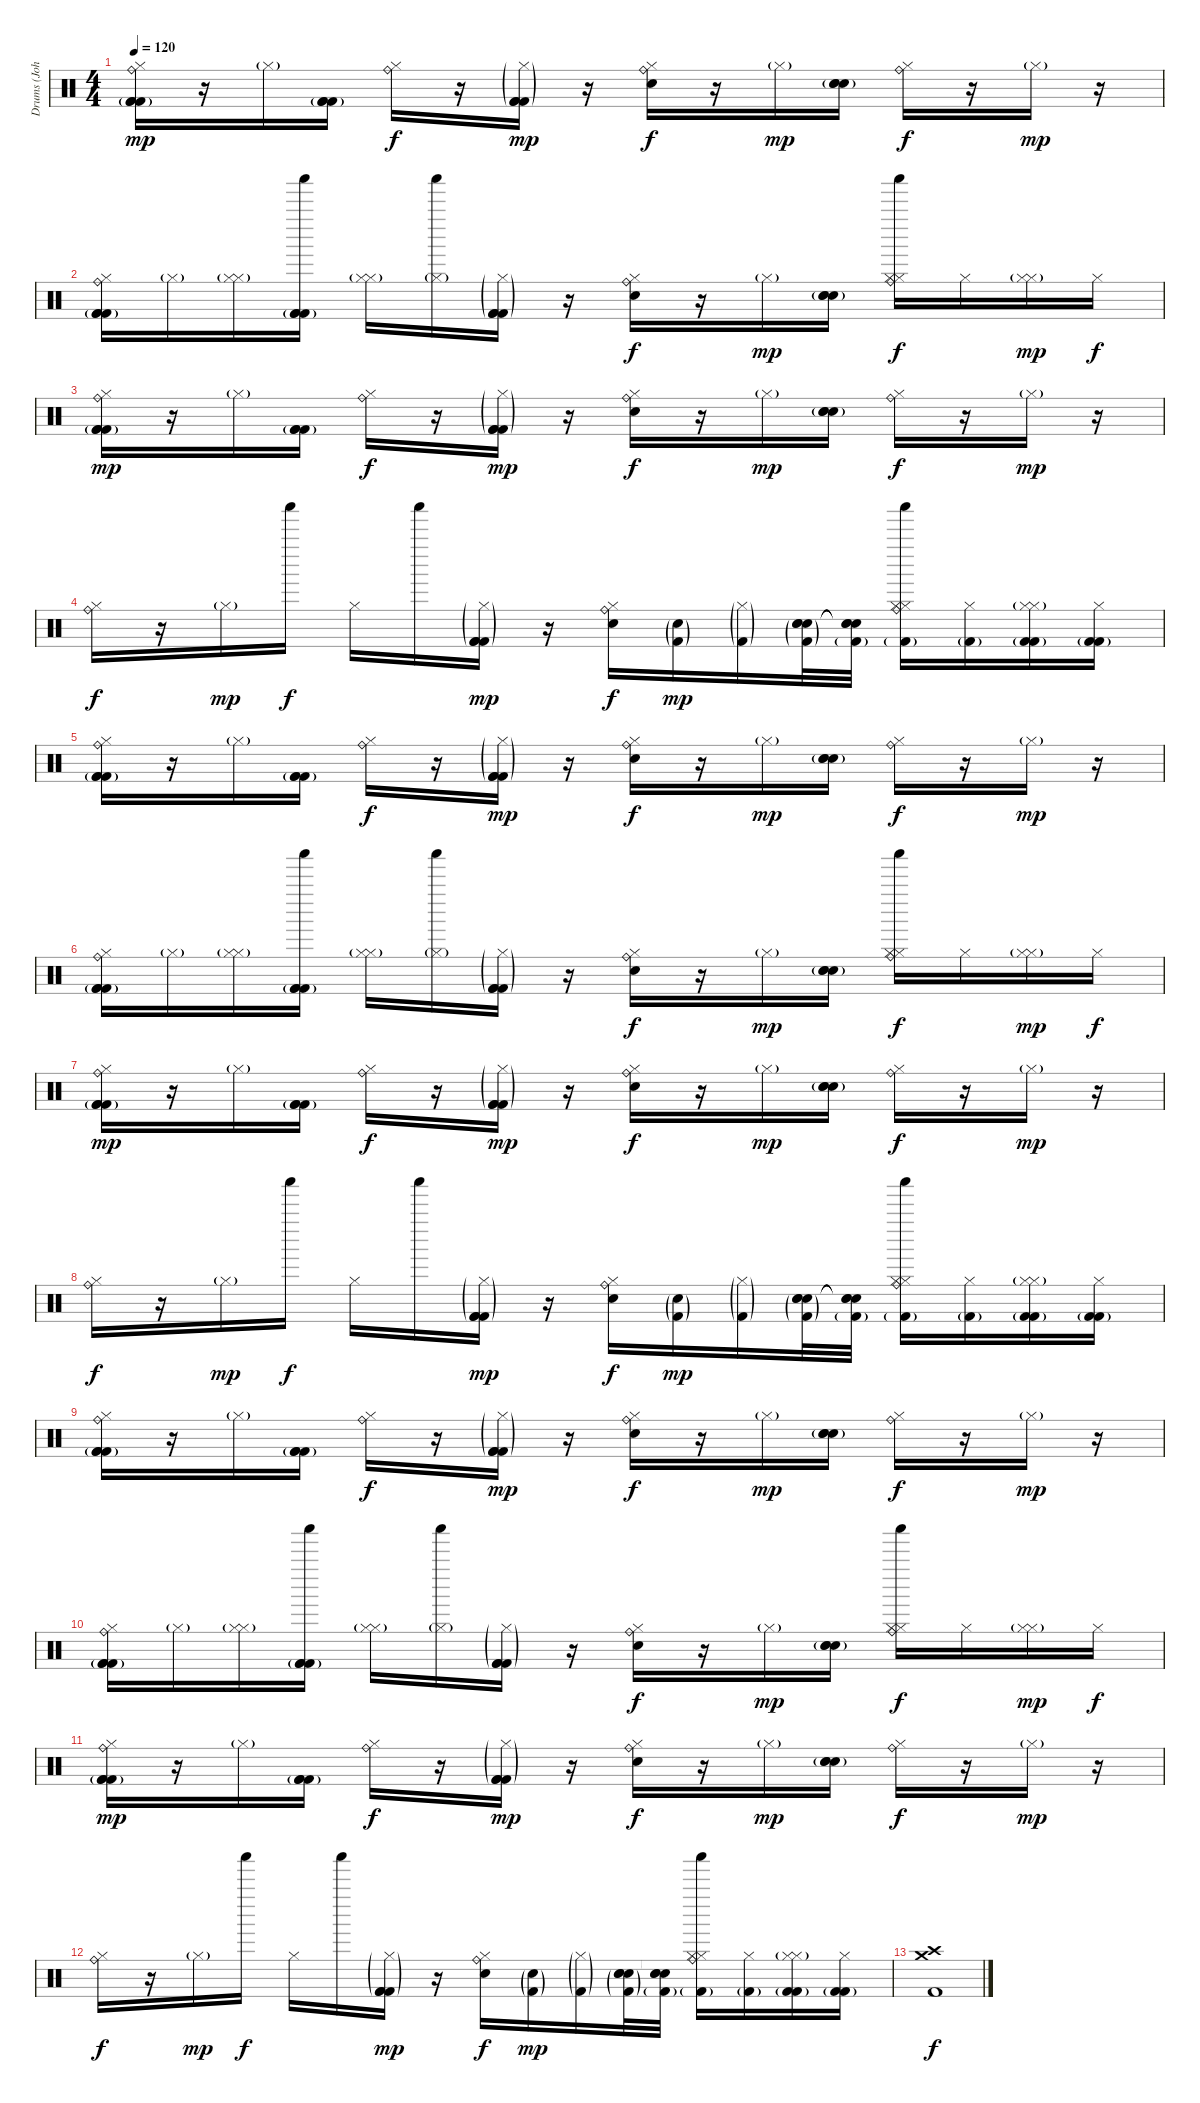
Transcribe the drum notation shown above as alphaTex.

\track ("Drums (Johno)" "Drums (Joh") {instrument percussion}
\staff {score}
\articulation defaults
\ts (4 4)
\tempo 120
\clef neutral
\ks c
("Ride (bell)" "Hi-Hat (closed)" "Kick (hit) 2"{g} "Kick (hit) 2"{g} "Kick (hit) 2").16{dy mp} r.16 "Hi-Hat (closed)"{g}.16 ("Kick (hit) 2"{g} "Kick (hit) 2"{g} "Kick (hit) 2"{g}).16 ("Ride (bell)" "Hi-Hat (closed)").16{dy f} r.16 ("Hi-Hat (closed)"{g} "Kick (hit) 2"{g} "Kick (hit) 2"{g} "Kick (hit) 2").16{dy mp} r.16 ("Ride (bell)" "Hi-Hat (closed)" "Electric Snare (hit)").16{dy f} r.16 "Hi-Hat (closed)"{g}.16{dy mp} ("Electric Snare (hit)"{g} "Electric Snare (hit)"{g} "Electric Snare (hit)"{g}).16 ("Ride (bell)" "Hi-Hat (closed)").16{dy f} r.16 "Hi-Hat (closed)"{g}.16{dy mp} r.16 |
("Ride (bell)" "Hi-Hat (closed)" "Kick (hit) 2"{g} "Kick (hit) 2"{g} "Kick (hit) 2").16 "Hi-Hat (closed)"{g}.16 ("Hi-Hat (closed)"{g} "Hi-Hat (closed)"{g}).16 ("Shaker (hit)" "Kick (hit) 2"{g} "Kick (hit) 2"{g} "Kick (hit) 2").16 ("Hi-Hat (closed)" "Hi-Hat (closed)"{g}).16 ("Shaker (hit)" "Hi-Hat (closed)"{g}).16 ("Hi-Hat (closed)"{g} "Kick (hit) 2"{g} "Kick (hit) 2"{g} "Kick (hit) 2").16 r.16 ("Ride (bell)" "Hi-Hat (closed)" "Electric Snare (hit)").16{dy f} r.16 "Hi-Hat (closed)"{g}.16{dy mp} ("Electric Snare (hit)"{g} "Electric Snare (hit)"{g} "Electric Snare (hit)"{g}).16 ("Shaker (hit)" "Hi-Hat (closed)" "Ride (bell)" "Hi-Hat (closed)").16{dy f} "Hi-Hat (closed)".16 ("Hi-Hat (closed)"{g} "Hi-Hat (closed)").16{dy mp} "Hi-Hat (closed)".16{dy f} |
("Ride (bell)" "Hi-Hat (closed)" "Kick (hit) 2"{g} "Kick (hit) 2"{g} "Kick (hit) 2").16{dy mp} r.16 "Hi-Hat (closed)"{g}.16 ("Kick (hit) 2"{g} "Kick (hit) 2"{g} "Kick (hit) 2"{g}).16 ("Ride (bell)" "Hi-Hat (closed)").16{dy f} r.16 ("Hi-Hat (closed)"{g} "Kick (hit) 2"{g} "Kick (hit) 2"{g} "Kick (hit) 2").16{dy mp} r.16 ("Ride (bell)" "Hi-Hat (closed)" "Electric Snare (hit)").16{dy f} r.16 "Hi-Hat (closed)"{g}.16{dy mp} ("Electric Snare (hit)"{g} "Electric Snare (hit)"{g} "Electric Snare (hit)"{g}).16 ("Ride (bell)" "Hi-Hat (closed)").16{dy f} r.16 "Hi-Hat (closed)"{g}.16{dy mp} r.16 |
("Ride (bell)" "Hi-Hat (closed)").16{dy f} r.16 "Hi-Hat (closed)"{g}.16{dy mp} "Shaker (hit)".16{dy f} "Hi-Hat (closed)".16 "Shaker (hit)".16 ("Hi-Hat (closed)"{g} "Kick (hit) 2"{g} "Kick (hit) 2"{g} "Kick (hit) 2").16{dy mp} r.16 ("Ride (bell)" "Hi-Hat (closed)" "Electric Snare (hit)").16{dy f} ("Kick (hit) 2"{g} "Electric Snare (hit)"{g}).16{dy mp} ("Hi-Hat (closed)"{g} "Kick (hit) 2"{g}).16 ("Kick (hit) 2"{g} "Electric Snare (hit)"{g} "Electric Snare (hit)"{g} "Electric Snare (hit)"{g}).32 ("Kick (hit) 2"{g} "Snare (hit)"{t} "Snare (hit)"{t} "Snare (hit)"{t}).32 ("Shaker (hit)" "Hi-Hat (closed)" "Ride (bell)" "Kick (hit) 2"{g} "Hi-Hat (closed)").16 ("Kick (hit) 2"{g} "Hi-Hat (closed)").16 ("Hi-Hat (closed)"{g} "Kick (hit) 2"{g} "Hi-Hat (closed)" "Kick (hit) 2").16 ("Kick (hit) 2"{g} "Hi-Hat (closed)" "Kick (hit) 2").16 |
("Ride (bell)" "Hi-Hat (closed)" "Kick (hit) 2"{g} "Kick (hit) 2"{g} "Kick (hit) 2").16 r.16 "Hi-Hat (closed)"{g}.16 ("Kick (hit) 2"{g} "Kick (hit) 2"{g} "Kick (hit) 2"{g}).16 ("Ride (bell)" "Hi-Hat (closed)").16{dy f} r.16 ("Hi-Hat (closed)"{g} "Kick (hit) 2"{g} "Kick (hit) 2"{g} "Kick (hit) 2").16{dy mp} r.16 ("Ride (bell)" "Hi-Hat (closed)" "Electric Snare (hit)").16{dy f} r.16 "Hi-Hat (closed)"{g}.16{dy mp} ("Electric Snare (hit)"{g} "Electric Snare (hit)"{g} "Electric Snare (hit)"{g}).16 ("Ride (bell)" "Hi-Hat (closed)").16{dy f} r.16 "Hi-Hat (closed)"{g}.16{dy mp} r.16 |
("Ride (bell)" "Hi-Hat (closed)" "Kick (hit) 2"{g} "Kick (hit) 2"{g} "Kick (hit) 2").16 "Hi-Hat (closed)"{g}.16 ("Hi-Hat (closed)"{g} "Hi-Hat (closed)"{g}).16 ("Shaker (hit)" "Kick (hit) 2"{g} "Kick (hit) 2"{g} "Kick (hit) 2").16 ("Hi-Hat (closed)" "Hi-Hat (closed)"{g}).16 ("Shaker (hit)" "Hi-Hat (closed)"{g}).16 ("Hi-Hat (closed)"{g} "Kick (hit) 2"{g} "Kick (hit) 2"{g} "Kick (hit) 2").16 r.16 ("Ride (bell)" "Hi-Hat (closed)" "Electric Snare (hit)").16{dy f} r.16 "Hi-Hat (closed)"{g}.16{dy mp} ("Electric Snare (hit)"{g} "Electric Snare (hit)"{g} "Electric Snare (hit)"{g}).16 ("Shaker (hit)" "Hi-Hat (closed)" "Ride (bell)" "Hi-Hat (closed)").16{dy f} "Hi-Hat (closed)".16 ("Hi-Hat (closed)"{g} "Hi-Hat (closed)").16{dy mp} "Hi-Hat (closed)".16{dy f} |
("Ride (bell)" "Hi-Hat (closed)" "Kick (hit) 2"{g} "Kick (hit) 2"{g} "Kick (hit) 2").16{dy mp} r.16 "Hi-Hat (closed)"{g}.16 ("Kick (hit) 2"{g} "Kick (hit) 2"{g} "Kick (hit) 2"{g}).16 ("Ride (bell)" "Hi-Hat (closed)").16{dy f} r.16 ("Hi-Hat (closed)"{g} "Kick (hit) 2"{g} "Kick (hit) 2"{g} "Kick (hit) 2").16{dy mp} r.16 ("Ride (bell)" "Hi-Hat (closed)" "Electric Snare (hit)").16{dy f} r.16 "Hi-Hat (closed)"{g}.16{dy mp} ("Electric Snare (hit)"{g} "Electric Snare (hit)"{g} "Electric Snare (hit)"{g}).16 ("Ride (bell)" "Hi-Hat (closed)").16{dy f} r.16 "Hi-Hat (closed)"{g}.16{dy mp} r.16 |
("Ride (bell)" "Hi-Hat (closed)").16{dy f} r.16 "Hi-Hat (closed)"{g}.16{dy mp} "Shaker (hit)".16{dy f} "Hi-Hat (closed)".16 "Shaker (hit)".16 ("Hi-Hat (closed)"{g} "Kick (hit) 2"{g} "Kick (hit) 2"{g} "Kick (hit) 2").16{dy mp} r.16 ("Ride (bell)" "Hi-Hat (closed)" "Electric Snare (hit)").16{dy f} ("Kick (hit) 2"{g} "Electric Snare (hit)"{g}).16{dy mp} ("Hi-Hat (closed)"{g} "Kick (hit) 2"{g}).16 ("Kick (hit) 2"{g} "Electric Snare (hit)"{g} "Electric Snare (hit)"{g} "Electric Snare (hit)"{g}).32 ("Kick (hit) 2"{g} "Snare (hit)"{t} "Snare (hit)"{t} "Snare (hit)"{t}).32 ("Shaker (hit)" "Hi-Hat (closed)" "Ride (bell)" "Kick (hit) 2"{g} "Hi-Hat (closed)").16 ("Kick (hit) 2"{g} "Hi-Hat (closed)").16 ("Hi-Hat (closed)"{g} "Kick (hit) 2"{g} "Hi-Hat (closed)" "Kick (hit) 2").16 ("Kick (hit) 2"{g} "Hi-Hat (closed)" "Kick (hit) 2").16 |
("Ride (bell)" "Hi-Hat (closed)" "Kick (hit) 2"{g} "Kick (hit) 2"{g} "Kick (hit) 2").16 r.16 "Hi-Hat (closed)"{g}.16 ("Kick (hit) 2"{g} "Kick (hit) 2"{g} "Kick (hit) 2"{g}).16 ("Ride (bell)" "Hi-Hat (closed)").16{dy f} r.16 ("Hi-Hat (closed)"{g} "Kick (hit) 2"{g} "Kick (hit) 2"{g} "Kick (hit) 2").16{dy mp} r.16 ("Ride (bell)" "Hi-Hat (closed)" "Electric Snare (hit)").16{dy f} r.16 "Hi-Hat (closed)"{g}.16{dy mp} ("Electric Snare (hit)"{g} "Electric Snare (hit)"{g} "Electric Snare (hit)"{g}).16 ("Ride (bell)" "Hi-Hat (closed)").16{dy f} r.16 "Hi-Hat (closed)"{g}.16{dy mp} r.16 |
("Ride (bell)" "Hi-Hat (closed)" "Kick (hit) 2"{g} "Kick (hit) 2"{g} "Kick (hit) 2").16 "Hi-Hat (closed)"{g}.16 ("Hi-Hat (closed)"{g} "Hi-Hat (closed)"{g}).16 ("Shaker (hit)" "Kick (hit) 2"{g} "Kick (hit) 2"{g} "Kick (hit) 2").16 ("Hi-Hat (closed)" "Hi-Hat (closed)"{g}).16 ("Shaker (hit)" "Hi-Hat (closed)"{g}).16 ("Hi-Hat (closed)"{g} "Kick (hit) 2"{g} "Kick (hit) 2"{g} "Kick (hit) 2").16 r.16 ("Ride (bell)" "Hi-Hat (closed)" "Electric Snare (hit)").16{dy f} r.16 "Hi-Hat (closed)"{g}.16{dy mp} ("Electric Snare (hit)"{g} "Electric Snare (hit)"{g} "Electric Snare (hit)"{g}).16 ("Shaker (hit)" "Hi-Hat (closed)" "Ride (bell)" "Hi-Hat (closed)").16{dy f} "Hi-Hat (closed)".16 ("Hi-Hat (closed)"{g} "Hi-Hat (closed)").16{dy mp} "Hi-Hat (closed)".16{dy f} |
("Ride (bell)" "Hi-Hat (closed)" "Kick (hit) 2"{g} "Kick (hit) 2"{g} "Kick (hit) 2").16{dy mp} r.16 "Hi-Hat (closed)"{g}.16 ("Kick (hit) 2"{g} "Kick (hit) 2"{g} "Kick (hit) 2"{g}).16 ("Ride (bell)" "Hi-Hat (closed)").16{dy f} r.16 ("Hi-Hat (closed)"{g} "Kick (hit) 2"{g} "Kick (hit) 2"{g} "Kick (hit) 2").16{dy mp} r.16 ("Ride (bell)" "Hi-Hat (closed)" "Electric Snare (hit)").16{dy f} r.16 "Hi-Hat (closed)"{g}.16{dy mp} ("Electric Snare (hit)"{g} "Electric Snare (hit)"{g} "Electric Snare (hit)"{g}).16 ("Ride (bell)" "Hi-Hat (closed)").16{dy f} r.16 "Hi-Hat (closed)"{g}.16{dy mp} r.16 |
("Ride (bell)" "Hi-Hat (closed)").16{dy f} r.16 "Hi-Hat (closed)"{g}.16{dy mp} "Shaker (hit)".16{dy f} "Hi-Hat (closed)".16 "Shaker (hit)".16 ("Hi-Hat (closed)"{g} "Kick (hit) 2"{g} "Kick (hit) 2"{g} "Kick (hit) 2").16{dy mp} r.16 ("Ride (bell)" "Hi-Hat (closed)" "Electric Snare (hit)").16{dy f} ("Kick (hit) 2"{g} "Electric Snare (hit)"{g}).16{dy mp} ("Hi-Hat (closed)"{g} "Kick (hit) 2"{g}).16 ("Kick (hit) 2"{g} "Electric Snare (hit)"{g} "Electric Snare (hit)"{g} "Electric Snare (hit)"{g}).32 ("Kick (hit) 2"{g} "Snare (hit)"{t} "Snare (hit)"{t} "Snare (hit)"{t}).32 ("Shaker (hit)" "Hi-Hat (closed)" "Ride (bell)" "Kick (hit) 2"{g} "Hi-Hat (closed)").16 ("Kick (hit) 2"{g} "Hi-Hat (closed)").16 ("Hi-Hat (closed)"{g} "Kick (hit) 2"{g} "Hi-Hat (closed)" "Kick (hit) 2").16 ("Kick (hit) 2"{g} "Hi-Hat (closed)" "Kick (hit) 2").16 |
("Crash high (hit)" "Crash medium (hit)" "Kick (hit) 2").1{dy f}
